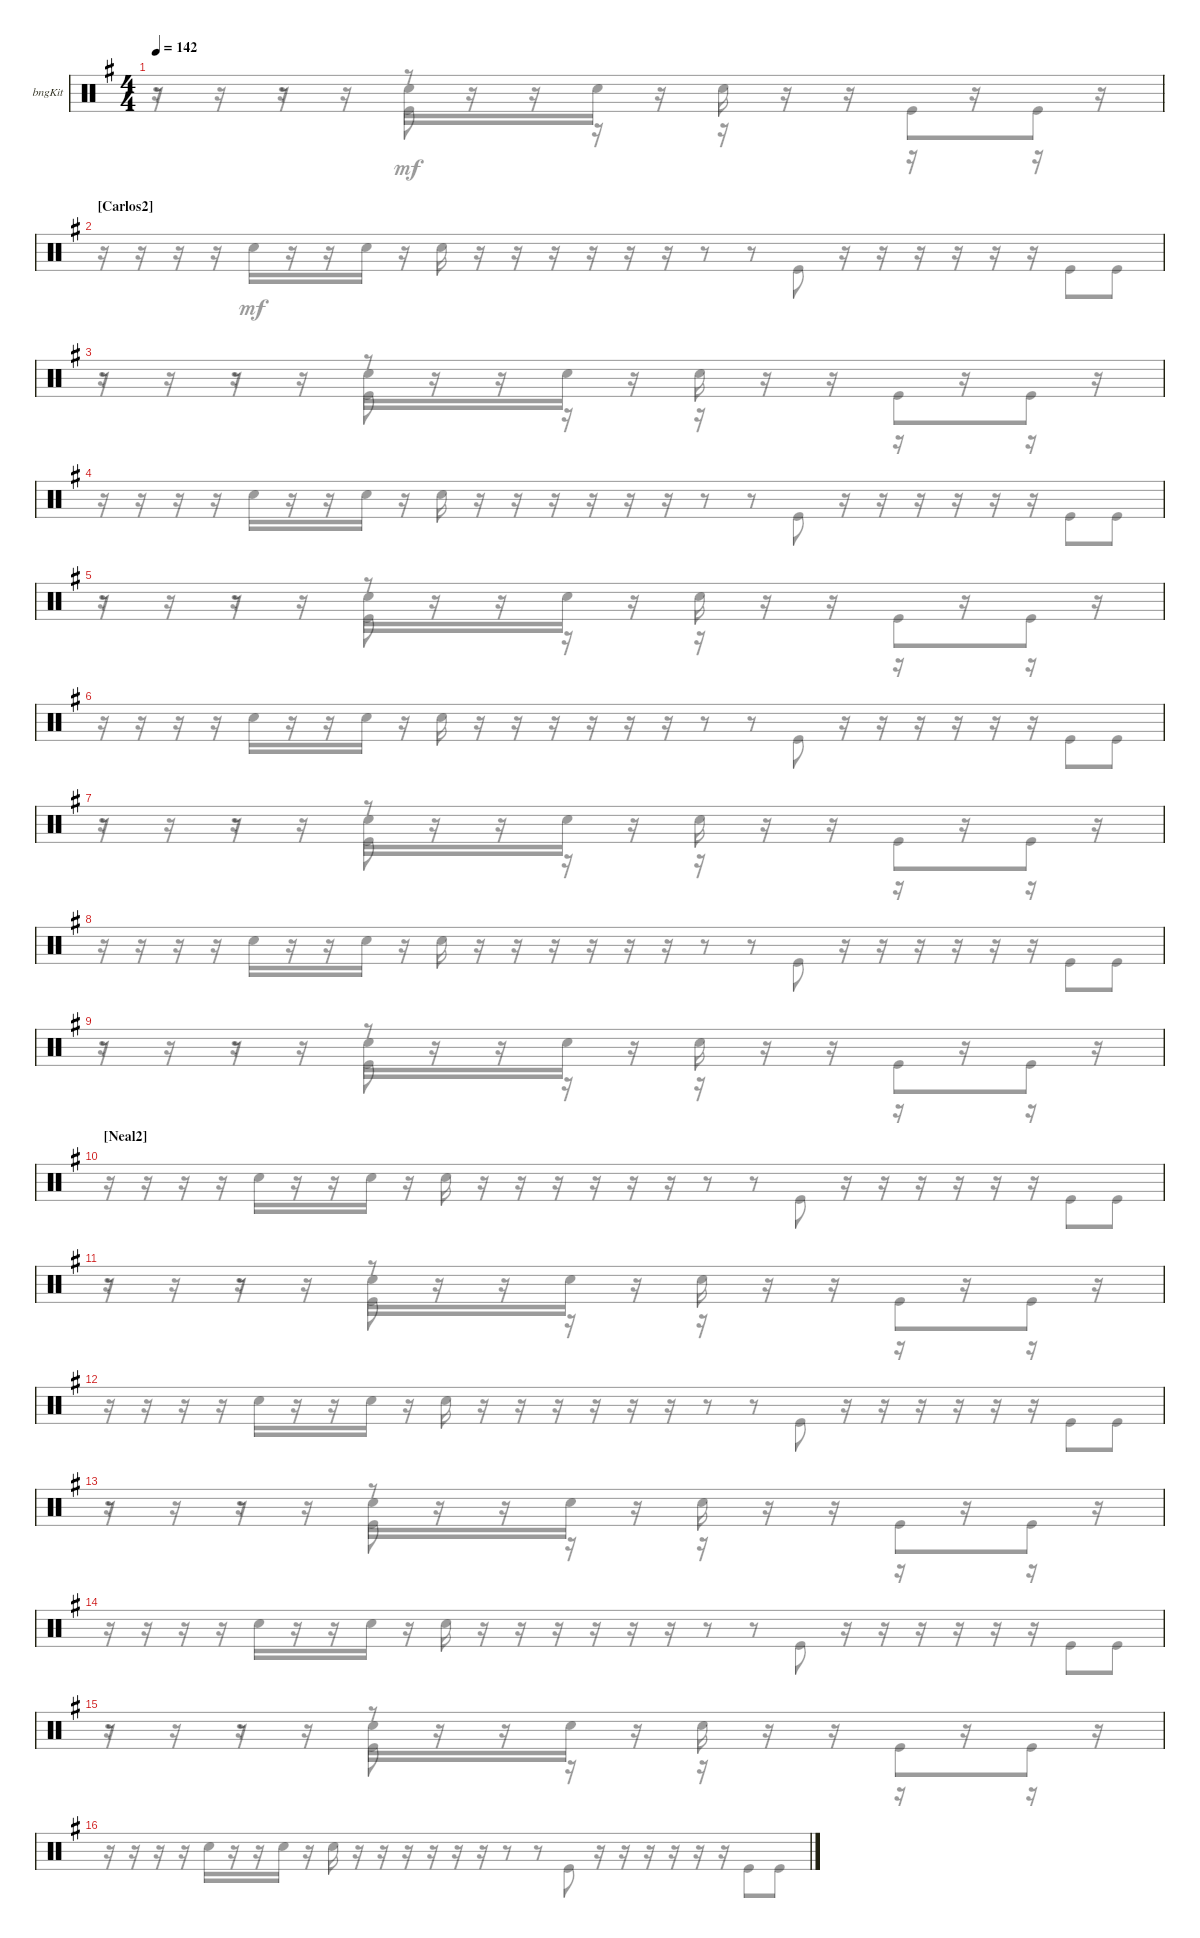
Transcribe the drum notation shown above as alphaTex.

\bracketExtendMode groupsimilarinstruments
\firstSystemTrackNameOrientation horizontal
\otherSystemsTrackNameOrientation horizontal
\track ("Bongos" "bngKit") {instrument percussion}
\staff {score}
\articulation defaults
\voice
\ts (4 4)
\tempo 142
\clef neutral
\ks eminor
|
\section ("" "[Carlos2] ")
|
|
|
|
|
|
|
|
\section ("" "[Neal2]")
|
|
|
|
|
|
\voice
\clef neutral
\ks eminor
r.8{dy mf} r.8 r.8 |
r.16 r.16 r.16 r.16 "Snare (hit) 2".16 r.16 r.16 "Snare (hit) 2".16 r.16 "Snare (hit) 2".16 r.16 r.16 r.16 r.16 r.16 r.16 r.8 r.8 "Kick (hit)".8 r.16 r.16 r.16 r.16 r.16 r.16 "Kick (hit)".8 "Kick (hit)".8 |
r.8 r.8 r.8 |
r.16 r.16 r.16 r.16 "Snare (hit) 2".16 r.16 r.16 "Snare (hit) 2".16 r.16 "Snare (hit) 2".16 r.16 r.16 r.16 r.16 r.16 r.16 r.8 r.8 "Kick (hit)".8 r.16 r.16 r.16 r.16 r.16 r.16 "Kick (hit)".8 "Kick (hit)".8 |
r.8 r.8 r.8 |
r.16 r.16 r.16 r.16 "Snare (hit) 2".16 r.16 r.16 "Snare (hit) 2".16 r.16 "Snare (hit) 2".16 r.16 r.16 r.16 r.16 r.16 r.16 r.8 r.8 "Kick (hit)".8 r.16 r.16 r.16 r.16 r.16 r.16 "Kick (hit)".8 "Kick (hit)".8 |
r.8 r.8 r.8 |
r.16 r.16 r.16 r.16 "Snare (hit) 2".16 r.16 r.16 "Snare (hit) 2".16 r.16 "Snare (hit) 2".16 r.16 r.16 r.16 r.16 r.16 r.16 r.8 r.8 "Kick (hit)".8 r.16 r.16 r.16 r.16 r.16 r.16 "Kick (hit)".8 "Kick (hit)".8 |
r.8 r.8 r.8 |
r.16 r.16 r.16 r.16 "Snare (hit) 2".16 r.16 r.16 "Snare (hit) 2".16 r.16 "Snare (hit) 2".16 r.16 r.16 r.16 r.16 r.16 r.16 r.8 r.8 "Kick (hit)".8 r.16 r.16 r.16 r.16 r.16 r.16 "Kick (hit)".8 "Kick (hit)".8 |
r.8 r.8 r.8 |
r.16 r.16 r.16 r.16 "Snare (hit) 2".16 r.16 r.16 "Snare (hit) 2".16 r.16 "Snare (hit) 2".16 r.16 r.16 r.16 r.16 r.16 r.16 r.8 r.8 "Kick (hit)".8 r.16 r.16 r.16 r.16 r.16 r.16 "Kick (hit)".8 "Kick (hit)".8 |
r.8 r.8 r.8 |
r.16 r.16 r.16 r.16 "Snare (hit) 2".16 r.16 r.16 "Snare (hit) 2".16 r.16 "Snare (hit) 2".16 r.16 r.16 r.16 r.16 r.16 r.16 r.8 r.8 "Kick (hit)".8 r.16 r.16 r.16 r.16 r.16 r.16 "Kick (hit)".8 "Kick (hit)".8 |
r.8 r.8 r.8 |
r.16 r.16 r.16 r.16 "Snare (hit) 2".16 r.16 r.16 "Snare (hit) 2".16 r.16 "Snare (hit) 2".16 r.16 r.16 r.16 r.16 r.16 r.16 r.8 r.8 "Kick (hit)".8 r.16 r.16 r.16 r.16 r.16 r.16 "Kick (hit)".8 "Kick (hit)".8
\voice
\clef neutral
\ottava regular
\simile none
\ks eminor
r.16{dy mf} r.16 r.16 r.16 "Snare (hit) 2".16 r.16 r.16 "Snare (hit) 2".16 r.16 "Snare (hit) 2".16 r.16 r.16 r.16 r.16 r.16 r.16 |
|
r.16 r.16 r.16 r.16 "Snare (hit) 2".16 r.16 r.16 "Snare (hit) 2".16 r.16 "Snare (hit) 2".16 r.16 r.16 r.16 r.16 r.16 r.16 |
|
r.16 r.16 r.16 r.16 "Snare (hit) 2".16 r.16 r.16 "Snare (hit) 2".16 r.16 "Snare (hit) 2".16 r.16 r.16 r.16 r.16 r.16 r.16 |
|
r.16 r.16 r.16 r.16 "Snare (hit) 2".16 r.16 r.16 "Snare (hit) 2".16 r.16 "Snare (hit) 2".16 r.16 r.16 r.16 r.16 r.16 r.16 |
|
r.16 r.16 r.16 r.16 "Snare (hit) 2".16 r.16 r.16 "Snare (hit) 2".16 r.16 "Snare (hit) 2".16 r.16 r.16 r.16 r.16 r.16 r.16 |
|
r.16 r.16 r.16 r.16 "Snare (hit) 2".16 r.16 r.16 "Snare (hit) 2".16 r.16 "Snare (hit) 2".16 r.16 r.16 r.16 r.16 r.16 r.16 |
|
r.16 r.16 r.16 r.16 "Snare (hit) 2".16 r.16 r.16 "Snare (hit) 2".16 r.16 "Snare (hit) 2".16 r.16 r.16 r.16 r.16 r.16 r.16 |
|
r.16 r.16 r.16 r.16 "Snare (hit) 2".16 r.16 r.16 "Snare (hit) 2".16 r.16 "Snare (hit) 2".16 r.16 r.16 r.16 r.16 r.16 r.16 |
\voice
\clef neutral
\ottava regular
\simile none
\ks eminor
r.8{dy mf} r.8 "Kick (hit)".8 r.16 r.16 r.16 r.16 r.16 r.16 "Kick (hit)".8 "Kick (hit)".8 |
|
r.8 r.8 "Kick (hit)".8 r.16 r.16 r.16 r.16 r.16 r.16 "Kick (hit)".8 "Kick (hit)".8 |
|
r.8 r.8 "Kick (hit)".8 r.16 r.16 r.16 r.16 r.16 r.16 "Kick (hit)".8 "Kick (hit)".8 |
|
r.8 r.8 "Kick (hit)".8 r.16 r.16 r.16 r.16 r.16 r.16 "Kick (hit)".8 "Kick (hit)".8 |
|
r.8 r.8 "Kick (hit)".8 r.16 r.16 r.16 r.16 r.16 r.16 "Kick (hit)".8 "Kick (hit)".8 |
|
r.8 r.8 "Kick (hit)".8 r.16 r.16 r.16 r.16 r.16 r.16 "Kick (hit)".8 "Kick (hit)".8 |
|
r.8 r.8 "Kick (hit)".8 r.16 r.16 r.16 r.16 r.16 r.16 "Kick (hit)".8 "Kick (hit)".8 |
|
r.8 r.8 "Kick (hit)".8 r.16 r.16 r.16 r.16 r.16 r.16 "Kick (hit)".8 "Kick (hit)".8 |
